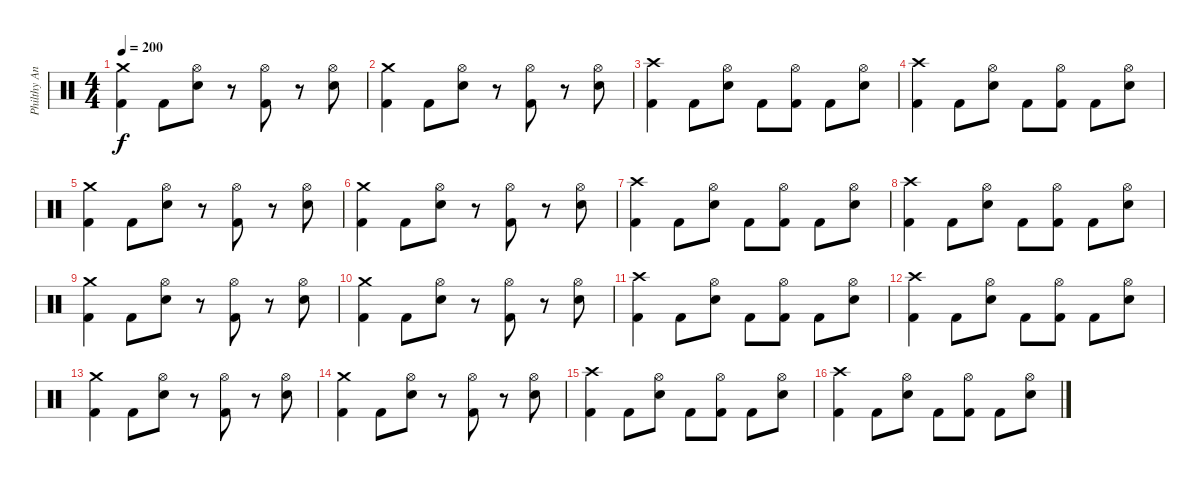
\track ("Philthy Animal Taylor" "Philthy An") {instrument percussion}
\staff {score}
\articulation defaults
\ts (4 4)
\tempo 200
\clef neutral
\ks c
("Crash medium (hit)" "Kick (hit) 2").4{dy f} "Kick (hit) 2".8 ("Hi-Hat (open)" "Electric Snare (hit)").8 r.8 ("Hi-Hat (open)" "Kick (hit) 2").8 r.8 ("Hi-Hat (open)" "Electric Snare (hit)").8 |
("Crash medium (hit)" "Kick (hit) 2").4 "Kick (hit) 2".8 ("Hi-Hat (open)" "Electric Snare (hit)").8 r.8 ("Hi-Hat (open)" "Kick (hit) 2").8 r.8 ("Hi-Hat (open)" "Electric Snare (hit)").8 |
("Crash high (hit)" "Kick (hit) 2").4 "Kick (hit) 2".8 ("Hi-Hat (open)" "Electric Snare (hit)").8 "Kick (hit) 2".8 ("Hi-Hat (open)" "Kick (hit) 2").8 "Kick (hit) 2".8 ("Hi-Hat (open)" "Electric Snare (hit)").8 |
("Crash high (hit)" "Kick (hit) 2").4 "Kick (hit) 2".8 ("Hi-Hat (open)" "Electric Snare (hit)").8 "Kick (hit) 2".8 ("Hi-Hat (open)" "Kick (hit) 2").8 "Kick (hit) 2".8 ("Hi-Hat (open)" "Electric Snare (hit)").8 |
("Crash medium (hit)" "Kick (hit) 2").4 "Kick (hit) 2".8 ("Hi-Hat (open)" "Electric Snare (hit)").8 r.8 ("Hi-Hat (open)" "Kick (hit) 2").8 r.8 ("Hi-Hat (open)" "Electric Snare (hit)").8 |
("Crash medium (hit)" "Kick (hit) 2").4 "Kick (hit) 2".8 ("Hi-Hat (open)" "Electric Snare (hit)").8 r.8 ("Hi-Hat (open)" "Kick (hit) 2").8 r.8 ("Hi-Hat (open)" "Electric Snare (hit)").8 |
("Crash high (hit)" "Kick (hit) 2").4 "Kick (hit) 2".8 ("Hi-Hat (open)" "Electric Snare (hit)").8 "Kick (hit) 2".8 ("Hi-Hat (open)" "Kick (hit) 2").8 "Kick (hit) 2".8 ("Hi-Hat (open)" "Electric Snare (hit)").8 |
("Crash high (hit)" "Kick (hit) 2").4 "Kick (hit) 2".8 ("Hi-Hat (open)" "Electric Snare (hit)").8 "Kick (hit) 2".8 ("Hi-Hat (open)" "Kick (hit) 2").8 "Kick (hit) 2".8 ("Hi-Hat (open)" "Electric Snare (hit)").8 |
("Crash medium (hit)" "Kick (hit) 2").4 "Kick (hit) 2".8 ("Hi-Hat (open)" "Electric Snare (hit)").8 r.8 ("Hi-Hat (open)" "Kick (hit) 2").8 r.8 ("Hi-Hat (open)" "Electric Snare (hit)").8 |
("Crash medium (hit)" "Kick (hit) 2").4 "Kick (hit) 2".8 ("Hi-Hat (open)" "Electric Snare (hit)").8 r.8 ("Hi-Hat (open)" "Kick (hit) 2").8 r.8 ("Hi-Hat (open)" "Electric Snare (hit)").8 |
("Crash high (hit)" "Kick (hit) 2").4 "Kick (hit) 2".8 ("Hi-Hat (open)" "Electric Snare (hit)").8 "Kick (hit) 2".8 ("Hi-Hat (open)" "Kick (hit) 2").8 "Kick (hit) 2".8 ("Hi-Hat (open)" "Electric Snare (hit)").8 |
("Crash high (hit)" "Kick (hit) 2").4 "Kick (hit) 2".8 ("Hi-Hat (open)" "Electric Snare (hit)").8 "Kick (hit) 2".8 ("Hi-Hat (open)" "Kick (hit) 2").8 "Kick (hit) 2".8 ("Hi-Hat (open)" "Electric Snare (hit)").8 |
("Crash medium (hit)" "Kick (hit) 2").4{volume 0} "Kick (hit) 2".8 ("Hi-Hat (open)" "Electric Snare (hit)").8 r.8 ("Hi-Hat (open)" "Kick (hit) 2").8 r.8 ("Hi-Hat (open)" "Electric Snare (hit)").8 |
("Crash medium (hit)" "Kick (hit) 2").4 "Kick (hit) 2".8 ("Hi-Hat (open)" "Electric Snare (hit)").8 r.8 ("Hi-Hat (open)" "Kick (hit) 2").8 r.8 ("Hi-Hat (open)" "Electric Snare (hit)").8 |
("Crash high (hit)" "Kick (hit) 2").4 "Kick (hit) 2".8 ("Hi-Hat (open)" "Electric Snare (hit)").8 "Kick (hit) 2".8 ("Hi-Hat (open)" "Kick (hit) 2").8 "Kick (hit) 2".8 ("Hi-Hat (open)" "Electric Snare (hit)").8 |
("Crash high (hit)" "Kick (hit) 2").4 "Kick (hit) 2".8 ("Hi-Hat (open)" "Electric Snare (hit)").8 "Kick (hit) 2".8 ("Hi-Hat (open)" "Kick (hit) 2").8 "Kick (hit) 2".8 ("Hi-Hat (open)" "Electric Snare (hit)").8
